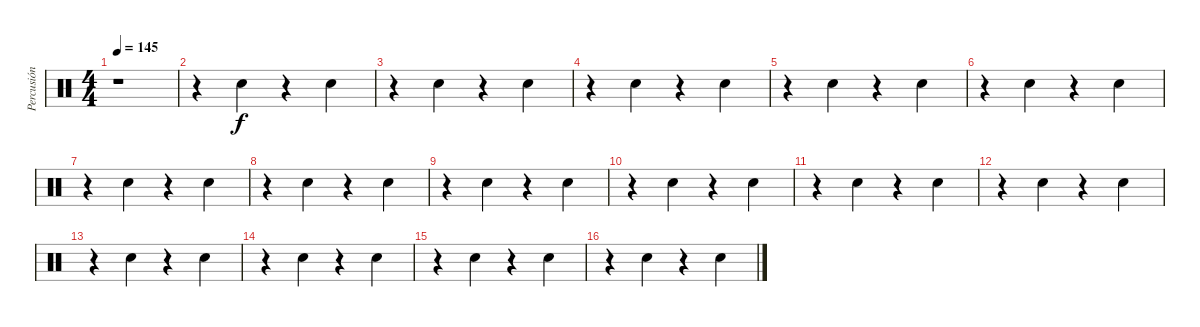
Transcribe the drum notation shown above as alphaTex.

\track ("Percusión" "Percusión") {instrument percussion}
\staff {score}
\articulation defaults
\ts (4 4)
\tempo 145
\clef neutral
\ks c
r.1{dy f} |
r.4 "Snare (hit) 2".4 r.4 "Snare (hit) 2".4 |
r.4 "Snare (hit) 2".4 r.4 "Snare (hit) 2".4 |
r.4 "Snare (hit) 2".4 r.4 "Snare (hit) 2".4 |
r.4 "Snare (hit) 2".4 r.4 "Snare (hit) 2".4 |
r.4 "Snare (hit) 2".4 r.4 "Snare (hit) 2".4 |
r.4 "Snare (hit) 2".4 r.4 "Snare (hit) 2".4 |
r.4 "Snare (hit) 2".4 r.4 "Snare (hit) 2".4 |
r.4 "Snare (hit) 2".4 r.4 "Snare (hit) 2".4 |
r.4 "Snare (hit) 2".4 r.4 "Snare (hit) 2".4 |
r.4 "Snare (hit) 2".4 r.4 "Snare (hit) 2".4 |
r.4 "Snare (hit) 2".4 r.4 "Snare (hit) 2".4 |
r.4 "Snare (hit) 2".4 r.4 "Snare (hit) 2".4 |
r.4 "Snare (hit) 2".4 r.4 "Snare (hit) 2".4 |
r.4 "Snare (hit) 2".4 r.4 "Snare (hit) 2".4 |
r.4 "Snare (hit) 2".4 r.4 "Snare (hit) 2".4
